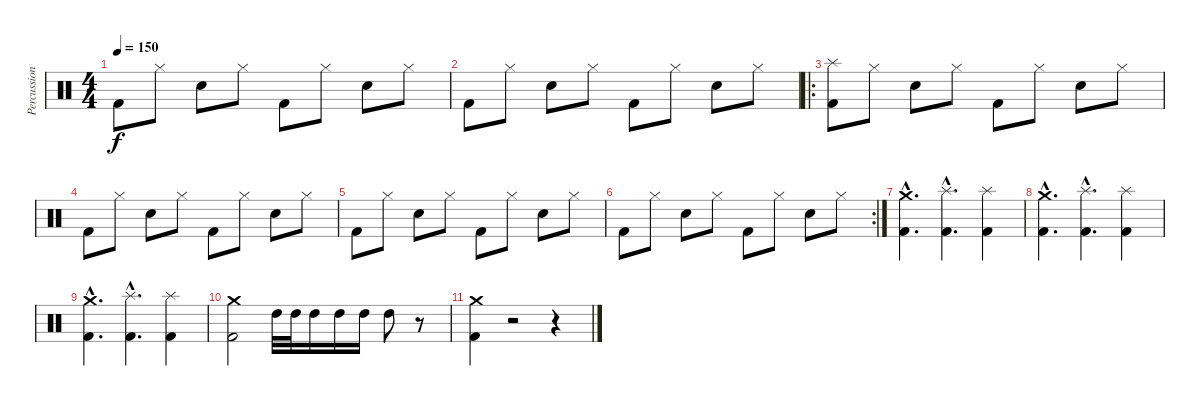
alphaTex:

\track ("Percussions" "Percussion") {instrument percussion}
\staff {score}
\articulation defaults
\ts (4 4)
\tempo 150
\clef neutral
\ks c "Kick (hit) 2".8{dy f} "Hi-Hat (closed)".8 "Electric Snare (hit)".8 "Hi-Hat (closed)".8 "Kick (hit) 2".8 "Hi-Hat (closed)".8 "Electric Snare (hit)".8 "Hi-Hat (closed)".8
|
"Kick (hit) 2".8 "Hi-Hat (closed)".8 "Electric Snare (hit)".8 "Hi-Hat (closed)".8 "Kick (hit) 2".8 "Hi-Hat (closed)".8 "Electric Snare (hit)".8 "Hi-Hat (closed)".8 |
\ro
("Kick (hit) 2" "Splash (hit)").8 "Hi-Hat (closed)".8 "Electric Snare (hit)".8 "Hi-Hat (closed)".8 "Kick (hit) 2".8 "Hi-Hat (closed)".8 "Electric Snare (hit)".8 "Hi-Hat (closed)".8 |
"Kick (hit) 2".8 "Hi-Hat (closed)".8 "Electric Snare (hit)".8 "Hi-Hat (closed)".8 "Kick (hit) 2".8 "Hi-Hat (closed)".8 "Electric Snare (hit)".8 "Hi-Hat (closed)".8 |
"Kick (hit) 2".8 "Hi-Hat (closed)".8 "Electric Snare (hit)".8 "Hi-Hat (closed)".8 "Kick (hit) 2".8 "Hi-Hat (closed)".8 "Electric Snare (hit)".8 "Hi-Hat (closed)".8 |
\rc 2 "Kick (hit) 2".8 "Hi-Hat (closed)".8 "Electric Snare (hit)".8 "Hi-Hat (closed)".8 "Kick (hit) 2".8 "Hi-Hat (closed)".8 "Electric Snare (hit)".8 "Hi-Hat (closed)".8
|
("Kick (hit) 2"{hac} "Crash medium (hit)"{hac}).4{d} ("Kick (hit) 2"{hac} "Splash (hit)"{hac}).4{d} ("Kick (hit) 2" "Splash (hit)").4 |
("Kick (hit) 2"{hac} "Crash medium (hit)"{hac}).4{d} ("Kick (hit) 2"{hac} "Splash (hit)"{hac}).4{d} ("Kick (hit) 2" "Splash (hit)").4 |
("Kick (hit) 2"{hac} "Crash medium (hit)"{hac}).4{d} ("Kick (hit) 2"{hac} "Splash (hit)"{hac}).4{d} ("Kick (hit) 2" "Splash (hit)").4 |
("Kick (hit) 2" "Crash medium (hit)").2 "High Tom (hit)".32 "High Tom (hit)".32 "High Tom (hit)".16 "High Tom (hit)".16 "High Tom (hit)".16 "High Tom (hit)".8 r.8 |
("Kick (hit) 2" "Crash medium (hit)").4 r.2 r.4
